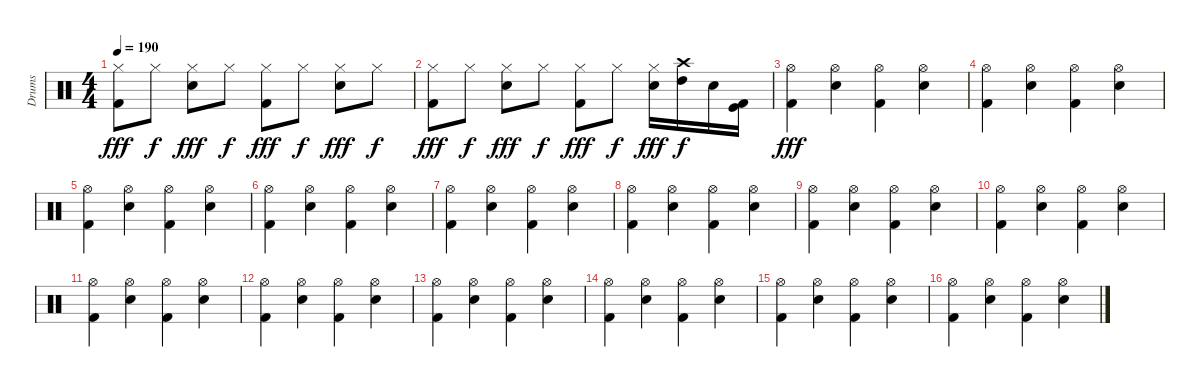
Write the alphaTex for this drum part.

\track ("Drums" "Drums") {instrument percussion}
\staff {score}
\articulation defaults
\ts (4 4)
\tempo 190
\clef neutral
\ks c
("Kick (hit) 2" "Hi-Hat (closed)").8{dy fff} "Hi-Hat (closed)".8{dy f} ("Snare (hit) 2" "Hi-Hat (closed)").8{dy fff} "Hi-Hat (closed)".8{dy f} ("Kick (hit) 2" "Hi-Hat (closed)").8{dy fff} "Hi-Hat (closed)".8{dy f} ("Snare (hit) 2" "Hi-Hat (closed)").8{dy fff} "Hi-Hat (closed)".8{dy f} |
("Kick (hit) 2" "Hi-Hat (closed)").8{dy fff} "Hi-Hat (closed)".8{dy f} ("Snare (hit) 2" "Hi-Hat (closed)").8{dy fff} "Hi-Hat (closed)".8{dy f} ("Kick (hit) 2" "Hi-Hat (closed)").8{dy fff} "Hi-Hat (closed)".8{dy f} ("Snare (hit) 2" "Hi-Hat (closed)").16{dy fff} ("High Tom (hit)" "Crash high (hit)").16{dy f} "Snare (hit) 2".16 ("Kick (hit) 2" "Kick (hit)").16 |
("Kick (hit) 2" "Hi-Hat (open)").4{dy fff} ("Snare (hit) 2" "Hi-Hat (open)").4 ("Kick (hit) 2" "Hi-Hat (open)").4 ("Snare (hit) 2" "Hi-Hat (open)").4 |
("Kick (hit) 2" "Hi-Hat (open)").4 ("Snare (hit) 2" "Hi-Hat (open)").4 ("Kick (hit) 2" "Hi-Hat (open)").4 ("Snare (hit) 2" "Hi-Hat (open)").4 |
("Kick (hit) 2" "Hi-Hat (open)").4 ("Snare (hit) 2" "Hi-Hat (open)").4 ("Kick (hit) 2" "Hi-Hat (open)").4 ("Snare (hit) 2" "Hi-Hat (open)").4 |
("Kick (hit) 2" "Hi-Hat (open)").4 ("Snare (hit) 2" "Hi-Hat (open)").4 ("Kick (hit) 2" "Hi-Hat (open)").4 ("Snare (hit) 2" "Hi-Hat (open)").4 |
("Kick (hit) 2" "Hi-Hat (open)").4 ("Snare (hit) 2" "Hi-Hat (open)").4 ("Kick (hit) 2" "Hi-Hat (open)").4 ("Snare (hit) 2" "Hi-Hat (open)").4 |
("Kick (hit) 2" "Hi-Hat (open)").4 ("Snare (hit) 2" "Hi-Hat (open)").4 ("Kick (hit) 2" "Hi-Hat (open)").4 ("Snare (hit) 2" "Hi-Hat (open)").4 |
("Kick (hit) 2" "Hi-Hat (open)").4 ("Snare (hit) 2" "Hi-Hat (open)").4 ("Kick (hit) 2" "Hi-Hat (open)").4 ("Snare (hit) 2" "Hi-Hat (open)").4 |
("Kick (hit) 2" "Hi-Hat (open)").4 ("Snare (hit) 2" "Hi-Hat (open)").4 ("Kick (hit) 2" "Hi-Hat (open)").4 ("Snare (hit) 2" "Hi-Hat (open)").4 |
("Kick (hit) 2" "Hi-Hat (open)").4 ("Snare (hit) 2" "Hi-Hat (open)").4 ("Kick (hit) 2" "Hi-Hat (open)").4 ("Snare (hit) 2" "Hi-Hat (open)").4 |
("Kick (hit) 2" "Hi-Hat (open)").4 ("Snare (hit) 2" "Hi-Hat (open)").4 ("Kick (hit) 2" "Hi-Hat (open)").4 ("Snare (hit) 2" "Hi-Hat (open)").4 |
("Kick (hit) 2" "Hi-Hat (open)").4 ("Snare (hit) 2" "Hi-Hat (open)").4 ("Kick (hit) 2" "Hi-Hat (open)").4 ("Snare (hit) 2" "Hi-Hat (open)").4 |
("Kick (hit) 2" "Hi-Hat (open)").4 ("Snare (hit) 2" "Hi-Hat (open)").4 ("Kick (hit) 2" "Hi-Hat (open)").4 ("Snare (hit) 2" "Hi-Hat (open)").4 |
("Kick (hit) 2" "Hi-Hat (open)").4 ("Snare (hit) 2" "Hi-Hat (open)").4 ("Kick (hit) 2" "Hi-Hat (open)").4 ("Snare (hit) 2" "Hi-Hat (open)").4 |
("Kick (hit) 2" "Hi-Hat (open)").4 ("Snare (hit) 2" "Hi-Hat (open)").4 ("Kick (hit) 2" "Hi-Hat (open)").4 ("Snare (hit) 2" "Hi-Hat (open)").4
